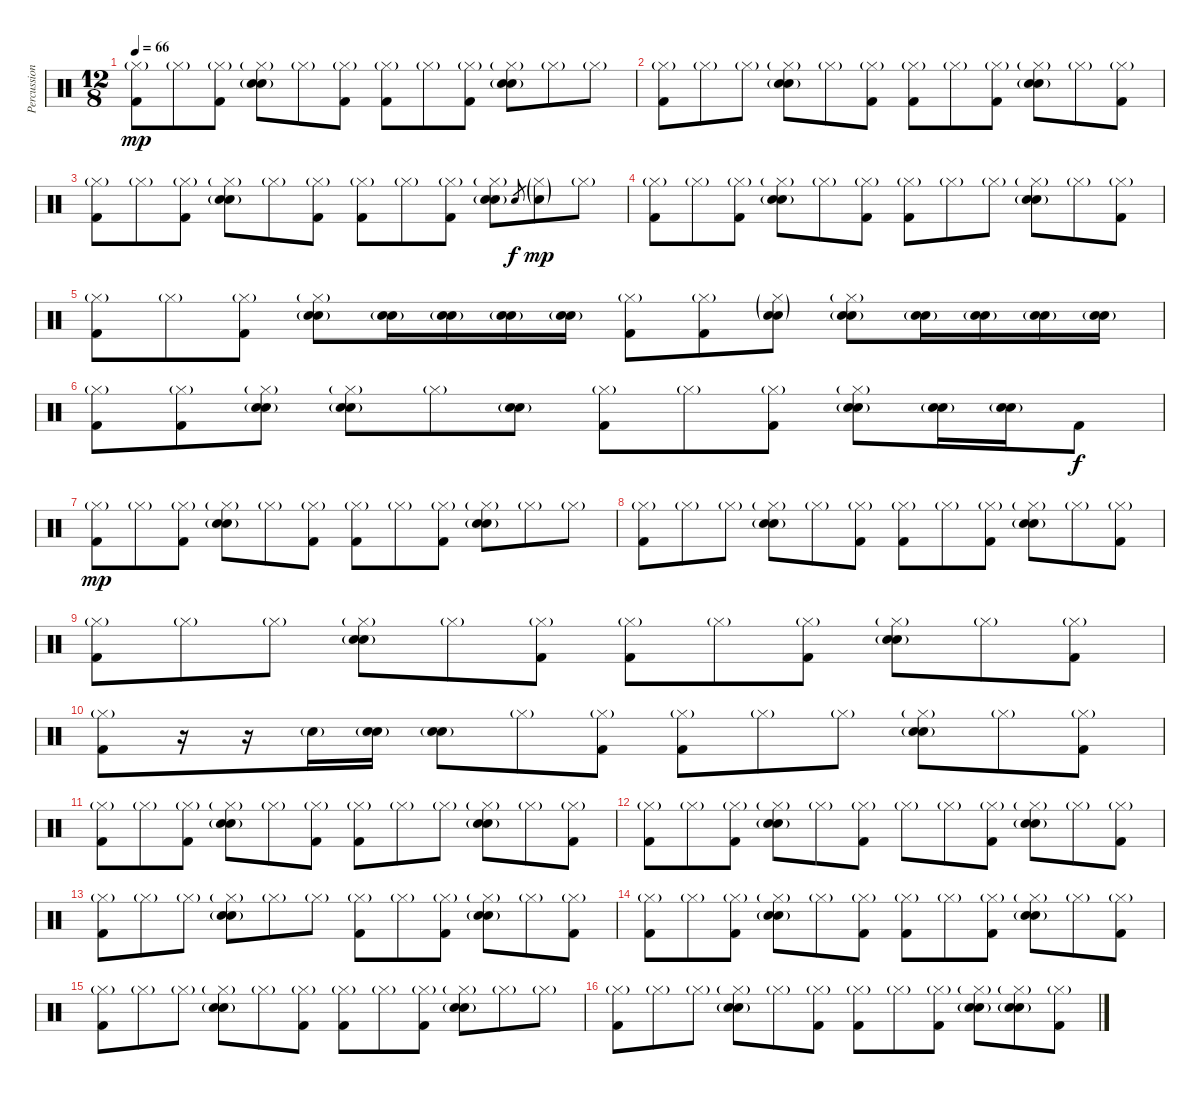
\track ("Percussion" "Percussion") {instrument percussion}
\staff {score}
\articulation defaults
\ts (12 8)
\tempo 66
\clef neutral
\ks c
("Hi-Hat (closed)"{g} "Kick (hit) 2").8{dy mp} "Hi-Hat (closed)"{g}.8 ("Hi-Hat (closed)"{g} "Kick (hit) 2").8 ("Hi-Hat (closed)"{g} "Snare (hit) 2" "Electric Snare (hit)"{g}).8 "Hi-Hat (closed)"{g}.8 ("Hi-Hat (closed)"{g} "Kick (hit) 2").8 ("Hi-Hat (closed)"{g} "Kick (hit) 2").8 "Hi-Hat (closed)"{g}.8 ("Hi-Hat (closed)"{g} "Kick (hit) 2").8 ("Hi-Hat (closed)"{g} "Snare (hit) 2" "Electric Snare (hit)"{g}).8 "Hi-Hat (closed)"{g}.8 "Hi-Hat (closed)"{g}.8 |
("Hi-Hat (closed)"{g} "Kick (hit) 2").8 "Hi-Hat (closed)"{g}.8 "Hi-Hat (closed)"{g}.8 ("Hi-Hat (closed)"{g} "Snare (hit) 2" "Electric Snare (hit)"{g}).8 "Hi-Hat (closed)"{g}.8 ("Hi-Hat (closed)"{g} "Kick (hit) 2").8 ("Hi-Hat (closed)"{g} "Kick (hit) 2").8 "Hi-Hat (closed)"{g}.8 ("Hi-Hat (closed)"{g} "Kick (hit) 2").8 ("Hi-Hat (closed)"{g} "Snare (hit) 2" "Electric Snare (hit)"{g}).8 "Hi-Hat (closed)"{g}.8 ("Hi-Hat (closed)"{g} "Kick (hit) 2").8 |
("Hi-Hat (closed)"{g} "Kick (hit) 2").8 "Hi-Hat (closed)"{g}.8 ("Hi-Hat (closed)"{g} "Kick (hit) 2").8 ("Hi-Hat (closed)"{g} "Snare (hit) 2" "Electric Snare (hit)"{g}).8 "Hi-Hat (closed)"{g}.8 ("Hi-Hat (closed)"{g} "Kick (hit) 2").8 ("Hi-Hat (closed)"{g} "Kick (hit) 2").8 "Hi-Hat (closed)"{g}.8 ("Hi-Hat (closed)"{g} "Kick (hit) 2").8 ("Hi-Hat (closed)"{g} "Snare (hit) 2" "Electric Snare (hit)"{g}).8 "Snare (hit) 2".8{gr dy f} ("Hi-Hat (closed)"{g} "Snare (hit) 2"{g}).8{dy mp} "Hi-Hat (closed)"{g}.8 |
("Hi-Hat (closed)"{g} "Kick (hit) 2").8 "Hi-Hat (closed)"{g}.8 ("Hi-Hat (closed)"{g} "Kick (hit) 2").8 ("Hi-Hat (closed)"{g} "Snare (hit) 2" "Electric Snare (hit)"{g}).8 "Hi-Hat (closed)"{g}.8 ("Hi-Hat (closed)"{g} "Kick (hit) 2").8 ("Hi-Hat (closed)"{g} "Kick (hit) 2").8 "Hi-Hat (closed)"{g}.8 "Hi-Hat (closed)"{g}.8 ("Hi-Hat (closed)"{g} "Snare (hit) 2" "Electric Snare (hit)"{g}).8 "Hi-Hat (closed)"{g}.8 ("Hi-Hat (closed)"{g} "Kick (hit) 2").8 |
("Hi-Hat (closed)"{g} "Kick (hit) 2").8 "Hi-Hat (closed)"{g}.8 ("Hi-Hat (closed)"{g} "Kick (hit) 2").8 ("Hi-Hat (closed)"{g} "Snare (hit) 2" "Electric Snare (hit)"{g}).8 ("Snare (hit) 2" "Electric Snare (hit)"{g}).16 ("Snare (hit) 2" "Electric Snare (hit)"{g}).16 ("Snare (hit) 2" "Electric Snare (hit)"{g}).16 ("Snare (hit) 2" "Electric Snare (hit)"{g}).16 ("Hi-Hat (closed)"{g} "Kick (hit) 2").8 ("Hi-Hat (closed)"{g} "Kick (hit) 2").8 ("Hi-Hat (closed)"{g} "Snare (hit) 2"{g} "Electric Snare (hit)"{g}).8 ("Hi-Hat (closed)"{g} "Snare (hit) 2" "Electric Snare (hit)"{g}).8 ("Snare (hit) 2" "Electric Snare (hit)"{g}).16 ("Snare (hit) 2" "Electric Snare (hit)"{g}).16 ("Snare (hit) 2" "Electric Snare (hit)"{g}).16 ("Snare (hit) 2" "Electric Snare (hit)"{g}).16 |
("Hi-Hat (closed)"{g} "Kick (hit) 2").8 ("Hi-Hat (closed)"{g} "Kick (hit) 2").8 ("Hi-Hat (closed)"{g} "Snare (hit) 2" "Electric Snare (hit)"{g}).8 ("Hi-Hat (closed)"{g} "Snare (hit) 2" "Electric Snare (hit)"{g}).8 "Hi-Hat (closed)"{g}.8 ("Snare (hit) 2" "Electric Snare (hit)"{g}).8 ("Hi-Hat (closed)"{g} "Kick (hit) 2").8 "Hi-Hat (closed)"{g}.8 ("Hi-Hat (closed)"{g} "Kick (hit) 2").8 ("Hi-Hat (closed)"{g} "Snare (hit) 2" "Electric Snare (hit)"{g}).8 ("Snare (hit) 2" "Electric Snare (hit)"{g}).16 ("Snare (hit) 2" "Electric Snare (hit)"{g}).16 "Kick (hit) 2".8{dy f} |
("Hi-Hat (closed)"{g} "Kick (hit) 2").8{dy mp} "Hi-Hat (closed)"{g}.8 ("Hi-Hat (closed)"{g} "Kick (hit) 2").8 ("Hi-Hat (closed)"{g} "Snare (hit) 2" "Electric Snare (hit)"{g}).8 "Hi-Hat (closed)"{g}.8 ("Hi-Hat (closed)"{g} "Kick (hit) 2").8 ("Hi-Hat (closed)"{g} "Kick (hit) 2").8 "Hi-Hat (closed)"{g}.8 ("Hi-Hat (closed)"{g} "Kick (hit) 2").8 ("Hi-Hat (closed)"{g} "Snare (hit) 2" "Electric Snare (hit)"{g}).8 "Hi-Hat (closed)"{g}.8 "Hi-Hat (closed)"{g}.8 |
("Hi-Hat (closed)"{g} "Kick (hit) 2").8 "Hi-Hat (closed)"{g}.8 "Hi-Hat (closed)"{g}.8 ("Hi-Hat (closed)"{g} "Snare (hit) 2" "Electric Snare (hit)"{g}).8 "Hi-Hat (closed)"{g}.8 ("Hi-Hat (closed)"{g} "Kick (hit) 2").8 ("Hi-Hat (closed)"{g} "Kick (hit) 2").8 "Hi-Hat (closed)"{g}.8 ("Hi-Hat (closed)"{g} "Kick (hit) 2").8 ("Hi-Hat (closed)"{g} "Snare (hit) 2" "Electric Snare (hit)"{g}).8 "Hi-Hat (closed)"{g}.8 ("Hi-Hat (closed)"{g} "Kick (hit) 2").8 |
("Hi-Hat (closed)"{g} "Kick (hit) 2").8 "Hi-Hat (closed)"{g}.8 "Hi-Hat (closed)"{g}.8 ("Hi-Hat (closed)"{g} "Snare (hit) 2" "Electric Snare (hit)"{g}).8 "Hi-Hat (closed)"{g}.8 ("Hi-Hat (closed)"{g} "Kick (hit) 2").8 ("Hi-Hat (closed)"{g} "Kick (hit) 2").8 "Hi-Hat (closed)"{g}.8 ("Hi-Hat (closed)"{g} "Kick (hit) 2").8 ("Hi-Hat (closed)"{g} "Snare (hit) 2" "Electric Snare (hit)"{g}).8 "Hi-Hat (closed)"{g}.8 ("Hi-Hat (closed)"{g} "Kick (hit) 2").8 |
("Hi-Hat (closed)"{g} "Kick (hit) 2").8 r.16 r.16 "Snare (hit) 2"{g}.16 ("Snare (hit) 2" "Electric Snare (hit)"{g}).16 ("Snare (hit) 2" "Electric Snare (hit)"{g}).8 "Hi-Hat (closed)"{g}.8 ("Hi-Hat (closed)"{g} "Kick (hit) 2").8 ("Hi-Hat (closed)"{g} "Kick (hit) 2").8 "Hi-Hat (closed)"{g}.8 "Hi-Hat (closed)"{g}.8 ("Hi-Hat (closed)"{g} "Snare (hit) 2" "Electric Snare (hit)"{g}).8 "Hi-Hat (closed)"{g}.8 ("Hi-Hat (closed)"{g} "Kick (hit) 2").8 |
("Hi-Hat (closed)"{g} "Kick (hit) 2").8 "Hi-Hat (closed)"{g}.8 ("Hi-Hat (closed)"{g} "Kick (hit) 2").8 ("Hi-Hat (closed)"{g} "Snare (hit) 2" "Electric Snare (hit)"{g}).8 "Hi-Hat (closed)"{g}.8 ("Hi-Hat (closed)"{g} "Kick (hit) 2").8 ("Hi-Hat (closed)"{g} "Kick (hit) 2").8 "Hi-Hat (closed)"{g}.8 "Hi-Hat (closed)"{g}.8 ("Hi-Hat (closed)"{g} "Snare (hit) 2" "Electric Snare (hit)"{g}).8 "Hi-Hat (closed)"{g}.8 ("Hi-Hat (closed)"{g} "Kick (hit) 2").8 |
("Hi-Hat (closed)"{g} "Kick (hit) 2").8 "Hi-Hat (closed)"{g}.8 ("Hi-Hat (closed)"{g} "Kick (hit) 2").8 ("Hi-Hat (closed)"{g} "Snare (hit) 2" "Electric Snare (hit)"{g}).8 "Hi-Hat (closed)"{g}.8 ("Hi-Hat (closed)"{g} "Kick (hit) 2").8 "Hi-Hat (closed)"{g}.8 "Hi-Hat (closed)"{g}.8 ("Hi-Hat (closed)"{g} "Kick (hit) 2").8 ("Hi-Hat (closed)"{g} "Snare (hit) 2" "Electric Snare (hit)"{g}).8 "Hi-Hat (closed)"{g}.8 ("Hi-Hat (closed)"{g} "Kick (hit) 2").8 |
("Hi-Hat (closed)"{g} "Kick (hit) 2").8 "Hi-Hat (closed)"{g}.8 "Hi-Hat (closed)"{g}.8 ("Hi-Hat (closed)"{g} "Snare (hit) 2" "Electric Snare (hit)"{g}).8 "Hi-Hat (closed)"{g}.8 "Hi-Hat (closed)"{g}.8 ("Hi-Hat (closed)"{g} "Kick (hit) 2").8 "Hi-Hat (closed)"{g}.8 ("Hi-Hat (closed)"{g} "Kick (hit) 2").8 ("Hi-Hat (closed)"{g} "Snare (hit) 2" "Electric Snare (hit)"{g}).8 "Hi-Hat (closed)"{g}.8 ("Hi-Hat (closed)"{g} "Kick (hit) 2").8 |
("Hi-Hat (closed)"{g} "Kick (hit) 2").8 "Hi-Hat (closed)"{g}.8 ("Hi-Hat (closed)"{g} "Kick (hit) 2").8 ("Hi-Hat (closed)"{g} "Snare (hit) 2" "Electric Snare (hit)"{g}).8 "Hi-Hat (closed)"{g}.8 ("Hi-Hat (closed)"{g} "Kick (hit) 2").8 ("Hi-Hat (closed)"{g} "Kick (hit) 2").8 "Hi-Hat (closed)"{g}.8 ("Hi-Hat (closed)"{g} "Kick (hit) 2").8 ("Hi-Hat (closed)"{g} "Snare (hit) 2" "Electric Snare (hit)"{g}).8 "Hi-Hat (closed)"{g}.8 ("Hi-Hat (closed)"{g} "Kick (hit) 2").8 |
("Hi-Hat (closed)"{g} "Kick (hit) 2").8 "Hi-Hat (closed)"{g}.8 "Hi-Hat (closed)"{g}.8 ("Hi-Hat (closed)"{g} "Snare (hit) 2" "Electric Snare (hit)"{g}).8 "Hi-Hat (closed)"{g}.8 ("Hi-Hat (closed)"{g} "Kick (hit) 2").8 ("Hi-Hat (closed)"{g} "Kick (hit) 2").8 "Hi-Hat (closed)"{g}.8 ("Hi-Hat (closed)"{g} "Kick (hit) 2").8 ("Hi-Hat (closed)"{g} "Snare (hit) 2" "Electric Snare (hit)"{g}).8 "Hi-Hat (closed)"{g}.8 "Hi-Hat (closed)"{g}.8 |
("Hi-Hat (closed)"{g} "Kick (hit) 2").8 "Hi-Hat (closed)"{g}.8 "Hi-Hat (closed)"{g}.8 ("Hi-Hat (closed)"{g} "Snare (hit) 2" "Electric Snare (hit)"{g}).8 "Hi-Hat (closed)"{g}.8 ("Hi-Hat (closed)"{g} "Kick (hit) 2").8 ("Hi-Hat (closed)"{g} "Kick (hit) 2").8 "Hi-Hat (closed)"{g}.8 ("Hi-Hat (closed)"{g} "Kick (hit) 2").8 ("Hi-Hat (closed)"{g} "Snare (hit) 2" "Electric Snare (hit)"{g}).8 ("Hi-Hat (closed)"{g} "Snare (hit) 2" "Electric Snare (hit)"{g}).8 ("Hi-Hat (closed)"{g} "Kick (hit) 2").8
